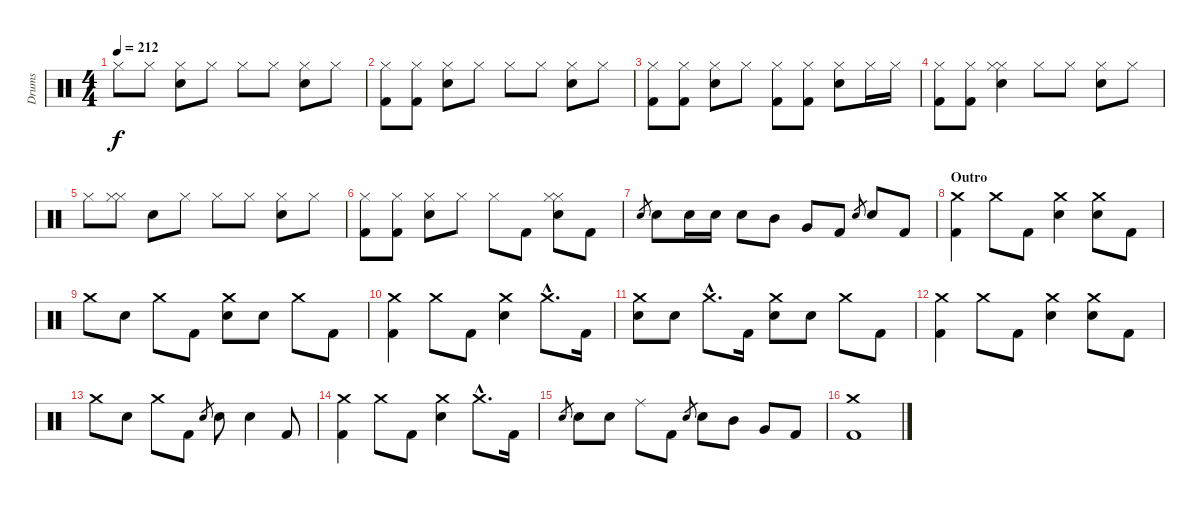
\track ("Drums" "Drums") {instrument percussion}
\staff {score}
\articulation defaults
\ts (4 4)
\tempo 212
\clef neutral
\ks c "Hi-Hat (closed)".8{dy f} "Hi-Hat (closed)".8
("Hi-Hat (closed)" "Electric Snare (hit)").8 "Hi-Hat (closed)".8 "Hi-Hat (closed)".8 "Hi-Hat (closed)".8 ("Hi-Hat (closed)" "Electric Snare (hit)").8 "Hi-Hat (closed)".8 |
("Hi-Hat (closed)" "Kick (hit) 2").8 ("Hi-Hat (closed)" "Kick (hit) 2").8 ("Hi-Hat (closed)" "Electric Snare (hit)").8 "Hi-Hat (closed)".8 "Hi-Hat (closed)".8 "Hi-Hat (closed)".8 ("Hi-Hat (closed)" "Electric Snare (hit)").8 "Hi-Hat (closed)".8 |
("Hi-Hat (closed)" "Kick (hit) 2").8 ("Hi-Hat (closed)" "Kick (hit) 2").8 ("Hi-Hat (closed)" "Electric Snare (hit)").8 "Hi-Hat (closed)".8 ("Hi-Hat (closed)" "Kick (hit) 2").8 ("Hi-Hat (closed)" "Kick (hit) 2").8 ("Hi-Hat (closed)" "Electric Snare (hit)").8 "Hi-Hat (closed)".16 "Hi-Hat (closed)".16 |
("Hi-Hat (closed)" "Kick (hit) 2").8 ("Hi-Hat (closed)" "Kick (hit) 2").8 ("Hi-Hat (closed)" "Hi-Hat (closed)" "Electric Snare (hit)").4 "Hi-Hat (closed)".8 "Hi-Hat (closed)".8 ("Hi-Hat (closed)" "Electric Snare (hit)").8 "Hi-Hat (closed)".8 |
"Hi-Hat (closed)".8 ("Hi-Hat (closed)" "Hi-Hat (closed)").8 "Electric Snare (hit)".8 "Hi-Hat (closed)".8 "Hi-Hat (closed)".8 "Hi-Hat (closed)".8 ("Hi-Hat (closed)" "Electric Snare (hit)").8 "Hi-Hat (closed)".8 |
("Hi-Hat (closed)" "Kick (hit) 2").8 ("Hi-Hat (closed)" "Kick (hit) 2").8 ("Hi-Hat (closed)" "Electric Snare (hit)").8 "Hi-Hat (closed)".8 "Hi-Hat (closed)".8 "Kick (hit) 2".8 ("Hi-Hat (closed)" "Hi-Hat (closed)" "Electric Snare (hit)").8 "Kick (hit) 2".8 |
"Electric Snare (hit)".8{gr} "Electric Snare (hit)".8 "Electric Snare (hit)".16 "Electric Snare (hit)".16 "Electric Snare (hit)".8 "Mid Tom (hit)".8 "Very Low Tom (hit)".8 "Kick (hit) 2".8 "Electric Snare (hit)".8{gr} "Electric Snare (hit)".8 "Kick (hit) 2".8 |
\section ("" "Outro")
("Crash medium (hit)" "Kick (hit) 2").4 "Crash medium (hit)".8 "Kick (hit) 2".8 ("Crash medium (hit)" "Electric Snare (hit)").4 ("Crash medium (hit)" "Electric Snare (hit)").8 "Kick (hit) 2".8 |
"Crash medium (hit)".8 "Electric Snare (hit)".8 "Crash medium (hit)".8 "Kick (hit) 2".8 ("Crash medium (hit)" "Electric Snare (hit)").8 "Electric Snare (hit)".8 "Crash medium (hit)".8 "Kick (hit) 2".8 |
("Crash medium (hit)" "Kick (hit) 2").4 "Crash medium (hit)".8 "Kick (hit) 2".8 ("Crash medium (hit)" "Electric Snare (hit)").4 "Crash medium (hit)"{hac}.8{d} "Kick (hit) 2".16 |
("Crash medium (hit)" "Electric Snare (hit)").8 "Electric Snare (hit)".8 "Crash medium (hit)"{hac}.8{d} "Kick (hit) 2".16 ("Crash medium (hit)" "Electric Snare (hit)").8 "Electric Snare (hit)".8 "Crash medium (hit)".8 "Kick (hit) 2".8 |
("Crash medium (hit)" "Kick (hit) 2").4 "Crash medium (hit)".8 "Kick (hit) 2".8 ("Crash medium (hit)" "Electric Snare (hit)").4 ("Crash medium (hit)" "Electric Snare (hit)").8 "Kick (hit) 2".8 |
"Crash medium (hit)".8 "Electric Snare (hit)".8 "Crash medium (hit)".8 "Kick (hit) 2".8 "Electric Snare (hit)".8{gr} "Electric Snare (hit)".8 "Electric Snare (hit)".4 "Kick (hit) 2".8 |
("Crash medium (hit)" "Kick (hit) 2").4 "Crash medium (hit)".8 "Kick (hit) 2".8 ("Crash medium (hit)" "Electric Snare (hit)").4 "Crash medium (hit)"{hac}.8{d} "Kick (hit) 2".16 |
"Electric Snare (hit)".8{gr} "Electric Snare (hit)".8 "Electric Snare (hit)".8 "Ride (middle)".8 "Kick (hit) 2".8 "Electric Snare (hit)".8{gr} "Electric Snare (hit)".8 "Mid Tom (hit)".8 "Very Low Tom (hit)".8 "Kick (hit) 2".8 |
("Crash medium (hit)" "Kick (hit) 2").1
